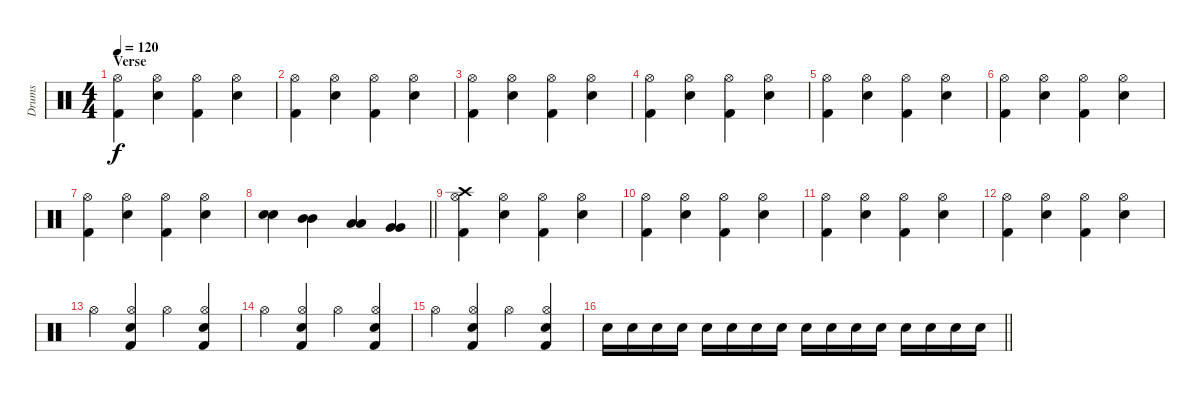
\track ("Drums" "Drums") {instrument percussion}
\staff {score}
\articulation defaults
\ts (4 4)
\section ("" "Verse")
\tempo 120
\clef neutral
\ks c
("Kick (hit) 2" "Hi-Hat (open)").4{dy f} ("Snare (hit) 2" "Hi-Hat (open)").4 ("Kick (hit) 2" "Hi-Hat (open)").4 ("Snare (hit) 2" "Hi-Hat (open)").4 |
("Kick (hit) 2" "Hi-Hat (open)").4 ("Snare (hit) 2" "Hi-Hat (open)").4 ("Kick (hit) 2" "Hi-Hat (open)").4 ("Snare (hit) 2" "Hi-Hat (open)").4 |
("Kick (hit) 2" "Hi-Hat (open)").4 ("Snare (hit) 2" "Hi-Hat (open)").4 ("Kick (hit) 2" "Hi-Hat (open)").4 ("Snare (hit) 2" "Hi-Hat (open)").4 |
("Kick (hit) 2" "Hi-Hat (open)").4 ("Snare (hit) 2" "Hi-Hat (open)").4 ("Kick (hit) 2" "Hi-Hat (open)").4 ("Snare (hit) 2" "Hi-Hat (open)").4 |
("Kick (hit) 2" "Hi-Hat (open)").4 ("Snare (hit) 2" "Hi-Hat (open)").4 ("Kick (hit) 2" "Hi-Hat (open)").4 ("Snare (hit) 2" "Hi-Hat (open)").4 |
("Kick (hit) 2" "Hi-Hat (open)").4 ("Snare (hit) 2" "Hi-Hat (open)").4 ("Kick (hit) 2" "Hi-Hat (open)").4 ("Snare (hit) 2" "Hi-Hat (open)").4 |
("Kick (hit) 2" "Hi-Hat (open)").4 ("Snare (hit) 2" "Hi-Hat (open)").4 ("Kick (hit) 2" "Hi-Hat (open)").4 ("Snare (hit) 2" "Hi-Hat (open)").4 |
\barLineRight lightlight
("Snare (hit) 2" "Snare (hit) 2").4 ("Mid Tom (hit)" "Mid Tom (hit)").4 ("Low Tom (hit)" "Low Tom (hit)").4 ("Very Low Tom (hit)" "Very Low Tom (hit)").4 |
("Kick (hit) 2" "Crash high (hit)" "Hi-Hat (open)").4 ("Snare (hit) 2" "Hi-Hat (open)").4 ("Kick (hit) 2" "Hi-Hat (open)").4 ("Snare (hit) 2" "Hi-Hat (open)").4 |
("Kick (hit) 2" "Hi-Hat (open)").4 ("Snare (hit) 2" "Hi-Hat (open)").4 ("Kick (hit) 2" "Hi-Hat (open)").4 ("Snare (hit) 2" "Hi-Hat (open)").4 |
("Kick (hit) 2" "Hi-Hat (open)").4 ("Snare (hit) 2" "Hi-Hat (open)").4 ("Kick (hit) 2" "Hi-Hat (open)").4 ("Snare (hit) 2" "Hi-Hat (open)").4 |
("Kick (hit) 2" "Hi-Hat (open)").4 ("Snare (hit) 2" "Hi-Hat (open)").4 ("Kick (hit) 2" "Hi-Hat (open)").4 ("Snare (hit) 2" "Hi-Hat (open)").4 |
"Hi-Hat (open)".4 ("Kick (hit) 2" "Snare (hit) 2" "Hi-Hat (open)").4 "Hi-Hat (open)".4 ("Kick (hit) 2" "Snare (hit) 2" "Hi-Hat (open)").4 |
"Hi-Hat (open)".4 ("Kick (hit) 2" "Snare (hit) 2" "Hi-Hat (open)").4 "Hi-Hat (open)".4 ("Kick (hit) 2" "Snare (hit) 2" "Hi-Hat (open)").4 |
"Hi-Hat (open)".4 ("Kick (hit) 2" "Snare (hit) 2" "Hi-Hat (open)").4 "Hi-Hat (open)".4 ("Kick (hit) 2" "Snare (hit) 2" "Hi-Hat (open)").4 |
\barLineRight lightlight "Snare (hit) 2".16 "Snare (hit) 2".16 "Snare (hit) 2".16 "Snare (hit) 2".16 "Snare (hit) 2".16 "Snare (hit) 2".16 "Snare (hit) 2".16 "Snare (hit) 2".16 "Snare (hit) 2".16 "Snare (hit) 2".16 "Snare (hit) 2".16 "Snare (hit) 2".16 "Snare (hit) 2".16 "Snare (hit) 2".16 "Snare (hit) 2".16 "Snare (hit) 2".16
